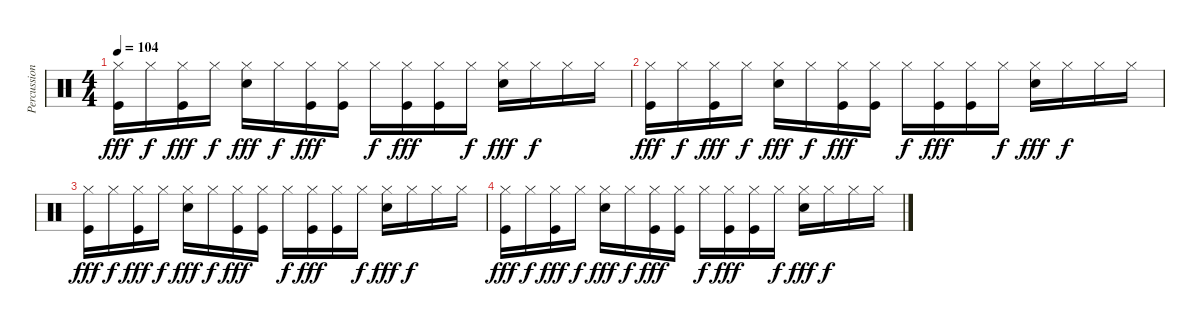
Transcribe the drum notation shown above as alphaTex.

\track ("Percussion" "Percussion") {instrument percussion}
\staff {score}
\articulation defaults
\ts (4 4)
\tempo 104
\clef neutral
\ks c
("Kick (hit)" "Hi-Hat (closed)").16{dy fff volume 0} "Hi-Hat (closed)".16{dy f} ("Kick (hit)" "Hi-Hat (closed)").16{dy fff} "Hi-Hat (closed)".16{dy f} ("Snare (hit) 2" "Hi-Hat (closed)").16{dy fff} "Hi-Hat (closed)".16{dy f} ("Kick (hit)" "Hi-Hat (closed)").16{dy fff} ("Kick (hit)" "Hi-Hat (closed)").16 "Hi-Hat (closed)".16{dy f} ("Kick (hit)" "Hi-Hat (closed)").16{dy fff} ("Kick (hit)" "Hi-Hat (closed)").16 "Hi-Hat (closed)".16{dy f} ("Snare (hit) 2" "Hi-Hat (closed)").16{dy fff} "Hi-Hat (closed)".16{dy f} "Hi-Hat (closed)".16 "Hi-Hat (closed)".16 |
("Kick (hit)" "Hi-Hat (closed)").16{dy fff} "Hi-Hat (closed)".16{dy f} ("Kick (hit)" "Hi-Hat (closed)").16{dy fff} "Hi-Hat (closed)".16{dy f} ("Snare (hit) 2" "Hi-Hat (closed)").16{dy fff} "Hi-Hat (closed)".16{dy f} ("Kick (hit)" "Hi-Hat (closed)").16{dy fff} ("Kick (hit)" "Hi-Hat (closed)").16 "Hi-Hat (closed)".16{dy f} ("Kick (hit)" "Hi-Hat (closed)").16{dy fff} ("Kick (hit)" "Hi-Hat (closed)").16 "Hi-Hat (closed)".16{dy f} ("Snare (hit) 2" "Hi-Hat (closed)").16{dy fff} "Hi-Hat (closed)".16{dy f} "Hi-Hat (closed)".16 "Hi-Hat (closed)".16 |
("Kick (hit)" "Hi-Hat (closed)").16{dy fff} "Hi-Hat (closed)".16{dy f} ("Kick (hit)" "Hi-Hat (closed)").16{dy fff} "Hi-Hat (closed)".16{dy f} ("Snare (hit) 2" "Hi-Hat (closed)").16{dy fff} "Hi-Hat (closed)".16{dy f} ("Kick (hit)" "Hi-Hat (closed)").16{dy fff} ("Kick (hit)" "Hi-Hat (closed)").16 "Hi-Hat (closed)".16{dy f} ("Kick (hit)" "Hi-Hat (closed)").16{dy fff} ("Kick (hit)" "Hi-Hat (closed)").16 "Hi-Hat (closed)".16{dy f} ("Snare (hit) 2" "Hi-Hat (closed)").16{dy fff} "Hi-Hat (closed)".16{dy f} "Hi-Hat (closed)".16 "Hi-Hat (closed)".16 |
("Kick (hit)" "Hi-Hat (closed)").16{dy fff} "Hi-Hat (closed)".16{dy f} ("Kick (hit)" "Hi-Hat (closed)").16{dy fff} "Hi-Hat (closed)".16{dy f} ("Snare (hit) 2" "Hi-Hat (closed)").16{dy fff} "Hi-Hat (closed)".16{dy f} ("Kick (hit)" "Hi-Hat (closed)").16{dy fff} ("Kick (hit)" "Hi-Hat (closed)").16 "Hi-Hat (closed)".16{dy f} ("Kick (hit)" "Hi-Hat (closed)").16{dy fff} ("Kick (hit)" "Hi-Hat (closed)").16 "Hi-Hat (closed)".16{dy f} ("Snare (hit) 2" "Hi-Hat (closed)").16{dy fff} "Hi-Hat (closed)".16{dy f} "Hi-Hat (closed)".16 "Hi-Hat (closed)".16
